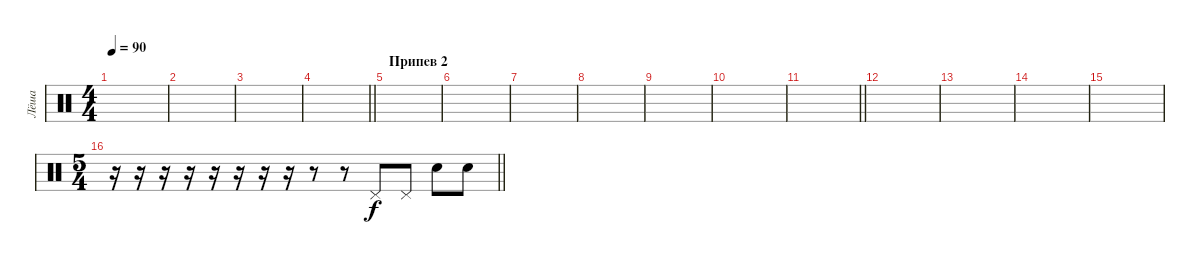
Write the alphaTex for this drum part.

\track ("Лёша" "Лёша") {instrument percussion}
\staff {score}
\articulation defaults
\ts (4 4)
\tempo 90
\clef neutral
\ks c
|
|
|
\barLineRight lightlight
|
\section ("" "Припев 2")
|
|
|
|
|
|
\barLineRight lightlight
|
|
|
|
|
\ts (5 4)
\barLineRight lightlight
r.16 r.16 r.16 r.16 r.16 r.16 r.16 r.16 r.8 r.8 "Pedal Hi-Hat (hit)".8 "Pedal Hi-Hat (hit)".8 "Electric Snare (hit)".8 "Electric Snare (hit)".8
